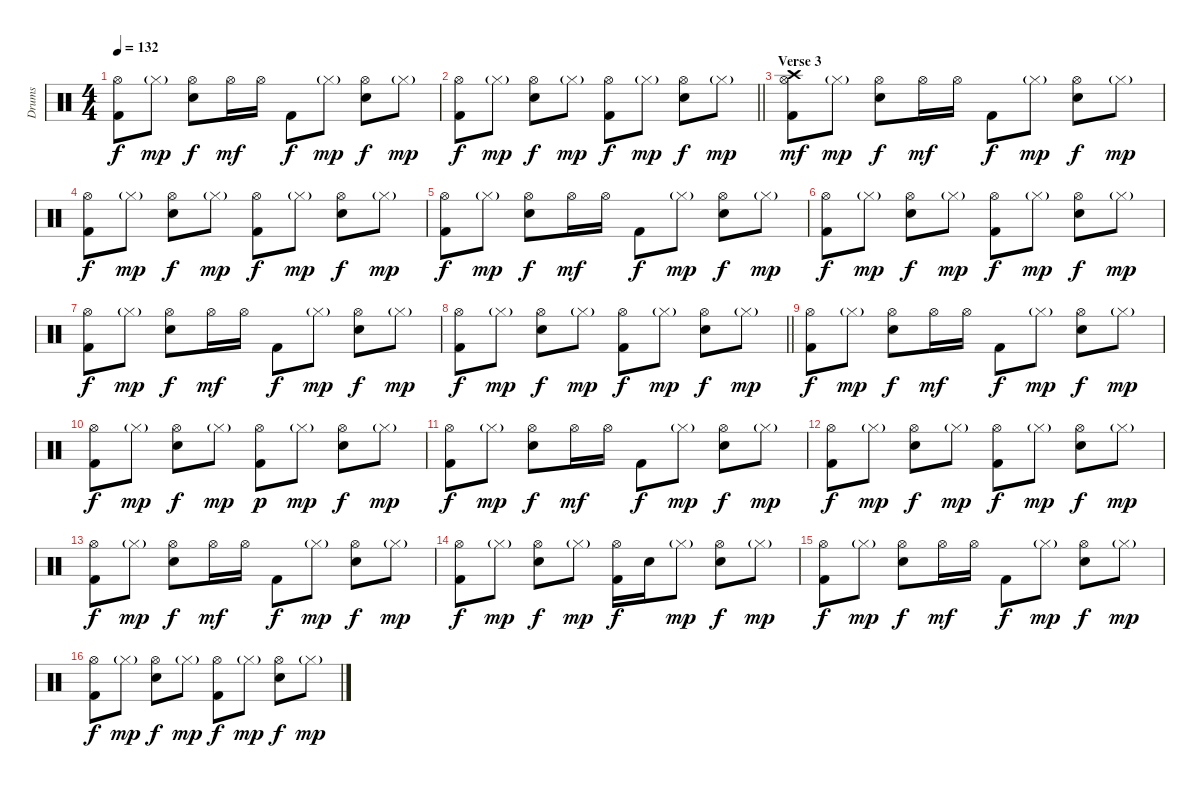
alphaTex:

\track ("Drums" "Drums") {instrument percussion}
\staff {score}
\articulation defaults
\ts (4 4)
\tempo 132
\clef neutral
\ks c
("Hi-Hat (open)" "Kick (hit) 2").8{dy f} "Hi-Hat (closed)"{g}.8{dy mp} ("Hi-Hat (open)" "Snare (hit) 2").8{dy f} "Hi-Hat (open)".16{dy mf} "Hi-Hat (open)".16 "Kick (hit) 2".8{dy f} "Hi-Hat (closed)"{g}.8{dy mp} ("Hi-Hat (open)" "Snare (hit) 2").8{dy f} "Hi-Hat (closed)"{g}.8{dy mp} |
\barLineRight lightlight
("Hi-Hat (open)" "Kick (hit) 2").8{dy f} "Hi-Hat (closed)"{g}.8{dy mp} ("Hi-Hat (open)" "Snare (hit) 2").8{dy f} "Hi-Hat (closed)"{g}.8{dy mp} ("Hi-Hat (open)" "Kick (hit) 2").8{dy f} "Hi-Hat (closed)"{g}.8{dy mp} ("Hi-Hat (open)" "Snare (hit) 2").8{dy f} "Hi-Hat (closed)"{g}.8{dy mp} |
\section ("" "Verse 3")
("Hi-Hat (open)" "Crash high (hit)" "Kick (hit) 2").8{dy mf} "Hi-Hat (closed)"{g}.8{dy mp} ("Hi-Hat (open)" "Snare (hit) 2").8{dy f} "Hi-Hat (open)".16{dy mf} "Hi-Hat (open)".16 "Kick (hit) 2".8{dy f} "Hi-Hat (closed)"{g}.8{dy mp} ("Hi-Hat (open)" "Snare (hit) 2").8{dy f} "Hi-Hat (closed)"{g}.8{dy mp} |
("Hi-Hat (open)" "Kick (hit) 2").8{dy f} "Hi-Hat (closed)"{g}.8{dy mp} ("Hi-Hat (open)" "Snare (hit) 2").8{dy f} "Hi-Hat (closed)"{g}.8{dy mp} ("Hi-Hat (open)" "Kick (hit) 2").8{dy f} "Hi-Hat (closed)"{g}.8{dy mp} ("Hi-Hat (open)" "Snare (hit) 2").8{dy f} "Hi-Hat (closed)"{g}.8{dy mp} |
("Hi-Hat (open)" "Kick (hit) 2").8{dy f} "Hi-Hat (closed)"{g}.8{dy mp} ("Hi-Hat (open)" "Snare (hit) 2").8{dy f} "Hi-Hat (open)".16{dy mf} "Hi-Hat (open)".16 "Kick (hit) 2".8{dy f} "Hi-Hat (closed)"{g}.8{dy mp} ("Hi-Hat (open)" "Snare (hit) 2").8{dy f} "Hi-Hat (closed)"{g}.8{dy mp} |
("Hi-Hat (open)" "Kick (hit) 2").8{dy f} "Hi-Hat (closed)"{g}.8{dy mp} ("Hi-Hat (open)" "Snare (hit) 2").8{dy f} "Hi-Hat (closed)"{g}.8{dy mp} ("Hi-Hat (open)" "Kick (hit) 2").8{dy f} "Hi-Hat (closed)"{g}.8{dy mp} ("Hi-Hat (open)" "Snare (hit) 2").8{dy f} "Hi-Hat (closed)"{g}.8{dy mp} |
("Hi-Hat (open)" "Kick (hit) 2").8{dy f} "Hi-Hat (closed)"{g}.8{dy mp} ("Hi-Hat (open)" "Snare (hit) 2").8{dy f} "Hi-Hat (open)".16{dy mf} "Hi-Hat (open)".16 "Kick (hit) 2".8{dy f} "Hi-Hat (closed)"{g}.8{dy mp} ("Hi-Hat (open)" "Snare (hit) 2").8{dy f} "Hi-Hat (closed)"{g}.8{dy mp} |
\barLineRight lightlight
("Hi-Hat (open)" "Kick (hit) 2").8{dy f} "Hi-Hat (closed)"{g}.8{dy mp} ("Hi-Hat (open)" "Snare (hit) 2").8{dy f} "Hi-Hat (closed)"{g}.8{dy mp} ("Hi-Hat (open)" "Kick (hit) 2").8{dy f} "Hi-Hat (closed)"{g}.8{dy mp} ("Hi-Hat (open)" "Snare (hit) 2").8{dy f} "Hi-Hat (closed)"{g}.8{dy mp} |
("Hi-Hat (open)" "Kick (hit) 2").8{dy f} "Hi-Hat (closed)"{g}.8{dy mp} ("Hi-Hat (open)" "Snare (hit) 2").8{dy f} "Hi-Hat (open)".16{dy mf} "Hi-Hat (open)".16 "Kick (hit) 2".8{dy f} "Hi-Hat (closed)"{g}.8{dy mp} ("Hi-Hat (open)" "Snare (hit) 2").8{dy f} "Hi-Hat (closed)"{g}.8{dy mp} |
("Hi-Hat (open)" "Kick (hit) 2").8{dy f} "Hi-Hat (closed)"{g}.8{dy mp} ("Hi-Hat (open)" "Snare (hit) 2").8{dy f} "Hi-Hat (closed)"{g}.8{dy mp} ("Hi-Hat (open)" "Kick (hit) 2").8{dy p} "Hi-Hat (closed)"{g}.8{dy mp} ("Hi-Hat (open)" "Snare (hit) 2").8{dy f} "Hi-Hat (closed)"{g}.8{dy mp} |
("Hi-Hat (open)" "Kick (hit) 2").8{dy f} "Hi-Hat (closed)"{g}.8{dy mp} ("Hi-Hat (open)" "Snare (hit) 2").8{dy f} "Hi-Hat (open)".16{dy mf} "Hi-Hat (open)".16 "Kick (hit) 2".8{dy f} "Hi-Hat (closed)"{g}.8{dy mp} ("Hi-Hat (open)" "Snare (hit) 2").8{dy f} "Hi-Hat (closed)"{g}.8{dy mp} |
("Hi-Hat (open)" "Kick (hit) 2").8{dy f} "Hi-Hat (closed)"{g}.8{dy mp} ("Hi-Hat (open)" "Snare (hit) 2").8{dy f} "Hi-Hat (closed)"{g}.8{dy mp} ("Hi-Hat (open)" "Kick (hit) 2").8{dy f} "Hi-Hat (closed)"{g}.8{dy mp} ("Hi-Hat (open)" "Snare (hit) 2").8{dy f} "Hi-Hat (closed)"{g}.8{dy mp} |
("Hi-Hat (open)" "Kick (hit) 2").8{dy f} "Hi-Hat (closed)"{g}.8{dy mp} ("Hi-Hat (open)" "Snare (hit) 2").8{dy f} "Hi-Hat (open)".16{dy mf} "Hi-Hat (open)".16 "Kick (hit) 2".8{dy f} "Hi-Hat (closed)"{g}.8{dy mp} ("Hi-Hat (open)" "Snare (hit) 2").8{dy f} "Hi-Hat (closed)"{g}.8{dy mp} |
("Hi-Hat (open)" "Kick (hit) 2").8{dy f} "Hi-Hat (closed)"{g}.8{dy mp} ("Hi-Hat (open)" "Snare (hit) 2").8{dy f} "Hi-Hat (closed)"{g}.8{dy mp} ("Hi-Hat (open)" "Kick (hit) 2").16{dy f} "Snare (hit) 2".16 "Hi-Hat (closed)"{g}.8{dy mp} ("Hi-Hat (open)" "Snare (hit) 2").8{dy f} "Hi-Hat (closed)"{g}.8{dy mp} |
("Hi-Hat (open)" "Kick (hit) 2").8{dy f} "Hi-Hat (closed)"{g}.8{dy mp} ("Hi-Hat (open)" "Snare (hit) 2").8{dy f} "Hi-Hat (open)".16{dy mf} "Hi-Hat (open)".16 "Kick (hit) 2".8{dy f} "Hi-Hat (closed)"{g}.8{dy mp} ("Hi-Hat (open)" "Snare (hit) 2").8{dy f} "Hi-Hat (closed)"{g}.8{dy mp} |
("Hi-Hat (open)" "Kick (hit) 2").8{dy f} "Hi-Hat (closed)"{g}.8{dy mp} ("Hi-Hat (open)" "Snare (hit) 2").8{dy f} "Hi-Hat (closed)"{g}.8{dy mp} ("Hi-Hat (open)" "Kick (hit) 2").8{dy f} "Hi-Hat (closed)"{g}.8{dy mp} ("Hi-Hat (open)" "Snare (hit) 2").8{dy f} "Hi-Hat (closed)"{g}.8{dy mp}
